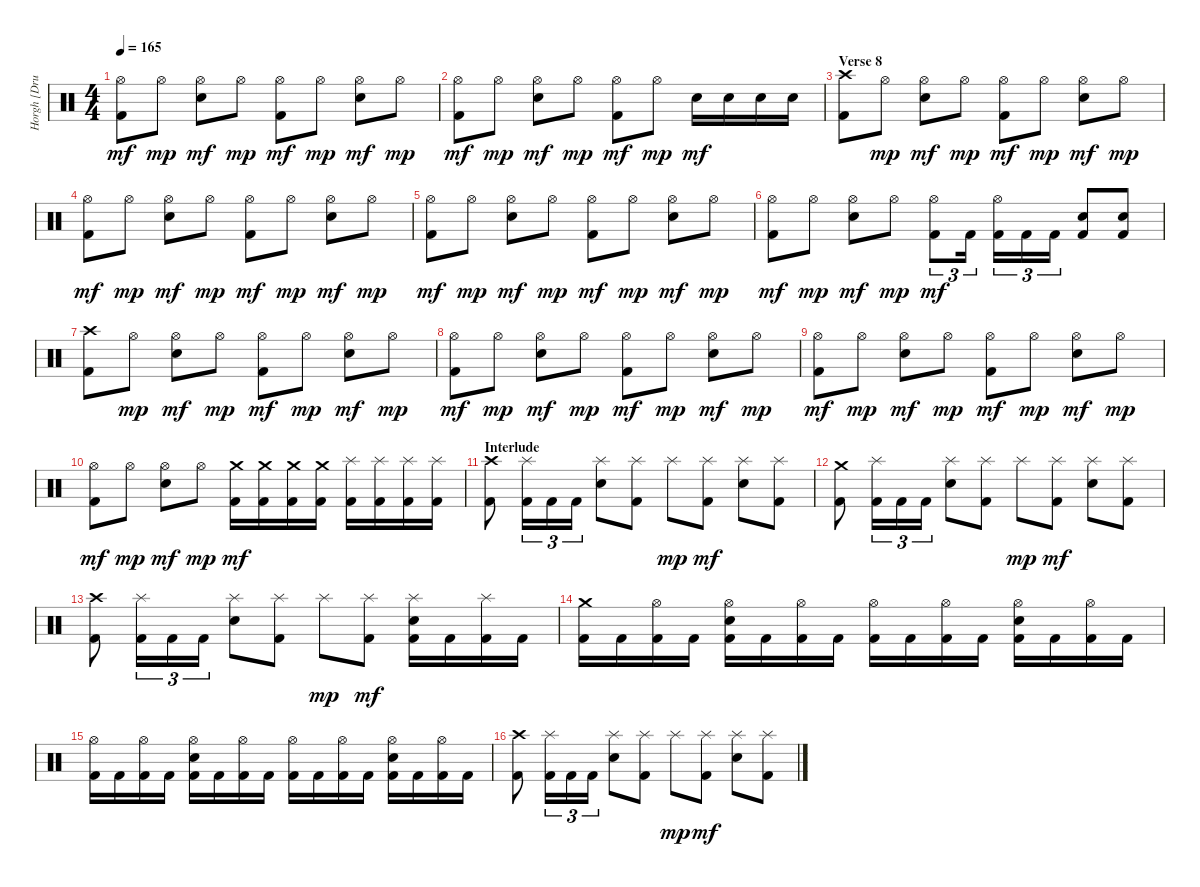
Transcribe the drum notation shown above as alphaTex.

\track ("Horgh [Drums]" "Horgh [Dru") {instrument percussion}
\staff {score}
\articulation defaults
\ts (4 4)
\tempo 165
\clef neutral
\ks c
("Hi-Hat (open)" "Kick (hit) 2").8{dy mf} "Hi-Hat (open)".8{dy mp} ("Hi-Hat (open)" "Electric Snare (hit)").8{dy mf} "Hi-Hat (open)".8{dy mp} ("Hi-Hat (open)" "Kick (hit) 2").8{dy mf} "Hi-Hat (open)".8{dy mp} ("Hi-Hat (open)" "Electric Snare (hit)").8{dy mf} "Hi-Hat (open)".8{dy mp} |
("Hi-Hat (open)" "Kick (hit) 2").8{dy mf} "Hi-Hat (open)".8{dy mp} ("Hi-Hat (open)" "Electric Snare (hit)").8{dy mf} "Hi-Hat (open)".8{dy mp} ("Hi-Hat (open)" "Kick (hit) 2").8{dy mf} "Hi-Hat (open)".8{dy mp} "Electric Snare (hit)".16{dy mf} "Electric Snare (hit)".16 "Electric Snare (hit)".16 "Electric Snare (hit)".16 |
\section ("" "Verse 8")
("Crash high (hit)" "Kick (hit) 2").8 "Hi-Hat (open)".8{dy mp} ("Hi-Hat (open)" "Electric Snare (hit)").8{dy mf} "Hi-Hat (open)".8{dy mp} ("Hi-Hat (open)" "Kick (hit) 2").8{dy mf} "Hi-Hat (open)".8{dy mp} ("Hi-Hat (open)" "Electric Snare (hit)").8{dy mf} "Hi-Hat (open)".8{dy mp} |
("Hi-Hat (open)" "Kick (hit) 2").8{dy mf} "Hi-Hat (open)".8{dy mp} ("Hi-Hat (open)" "Electric Snare (hit)").8{dy mf} "Hi-Hat (open)".8{dy mp} ("Hi-Hat (open)" "Kick (hit) 2").8{dy mf} "Hi-Hat (open)".8{dy mp} ("Hi-Hat (open)" "Electric Snare (hit)").8{dy mf} "Hi-Hat (open)".8{dy mp} |
("Hi-Hat (open)" "Kick (hit) 2").8{dy mf} "Hi-Hat (open)".8{dy mp} ("Hi-Hat (open)" "Electric Snare (hit)").8{dy mf} "Hi-Hat (open)".8{dy mp} ("Hi-Hat (open)" "Kick (hit) 2").8{dy mf} "Hi-Hat (open)".8{dy mp} ("Hi-Hat (open)" "Electric Snare (hit)").8{dy mf} "Hi-Hat (open)".8{dy mp} |
("Hi-Hat (open)" "Kick (hit) 2").8{dy mf} "Hi-Hat (open)".8{dy mp} ("Hi-Hat (open)" "Electric Snare (hit)").8{dy mf} "Hi-Hat (open)".8{dy mp} ("Hi-Hat (open)" "Kick (hit) 2").8{tu (3 2) dy mf} "Kick (hit) 2".16{tu (3 2)} ("Hi-Hat (open)" "Kick (hit) 2").16{tu (3 2)} "Kick (hit) 2".16{tu (3 2)} "Kick (hit) 2".16{tu (3 2)} ("Electric Snare (hit)" "Kick (hit) 2").8 ("Electric Snare (hit)" "Kick (hit) 2").8 |
("Crash high (hit)" "Kick (hit) 2").8 "Hi-Hat (open)".8{dy mp} ("Hi-Hat (open)" "Electric Snare (hit)").8{dy mf} "Hi-Hat (open)".8{dy mp} ("Hi-Hat (open)" "Kick (hit) 2").8{dy mf} "Hi-Hat (open)".8{dy mp} ("Hi-Hat (open)" "Electric Snare (hit)").8{dy mf} "Hi-Hat (open)".8{dy mp} |
("Hi-Hat (open)" "Kick (hit) 2").8{dy mf} "Hi-Hat (open)".8{dy mp} ("Hi-Hat (open)" "Electric Snare (hit)").8{dy mf} "Hi-Hat (open)".8{dy mp} ("Hi-Hat (open)" "Kick (hit) 2").8{dy mf} "Hi-Hat (open)".8{dy mp} ("Hi-Hat (open)" "Electric Snare (hit)").8{dy mf} "Hi-Hat (open)".8{dy mp} |
("Hi-Hat (open)" "Kick (hit) 2").8{dy mf} "Hi-Hat (open)".8{dy mp} ("Hi-Hat (open)" "Electric Snare (hit)").8{dy mf} "Hi-Hat (open)".8{dy mp} ("Hi-Hat (open)" "Kick (hit) 2").8{dy mf} "Hi-Hat (open)".8{dy mp} ("Hi-Hat (open)" "Electric Snare (hit)").8{dy mf} "Hi-Hat (open)".8{dy mp} |
("Hi-Hat (open)" "Kick (hit) 2").8{dy mf} "Hi-Hat (open)".8{dy mp} ("Hi-Hat (open)" "Electric Snare (hit)").8{dy mf} "Hi-Hat (open)".8{dy mp} ("Crash medium (hit)" "Kick (hit) 2").16{dy mf} ("Crash medium (hit)" "Kick (hit) 2").16 ("Crash medium (hit)" "Kick (hit) 2").16 ("Crash medium (hit)" "Kick (hit) 2").16 ("Splash (hit)" "Kick (hit) 2").16 ("Splash (hit)" "Kick (hit) 2").16 ("Splash (hit)" "Kick (hit) 2").16 ("Splash (hit)" "Kick (hit) 2").16 |
\section ("" "Interlude")
("Crash high (hit)" "Kick (hit) 2").8 ("Splash (hit)" "Kick (hit) 2").16{tu (3 2)} "Kick (hit) 2".16{tu (3 2)} "Kick (hit) 2".16{tu (3 2)} ("Splash (hit)" "Electric Snare (hit)").8 ("Splash (hit)" "Kick (hit) 2").8 "Splash (hit)".8{dy mp} ("Splash (hit)" "Kick (hit) 2").8{dy mf} ("Splash (hit)" "Electric Snare (hit)").8 ("Splash (hit)" "Kick (hit) 2").8 |
("Crash medium (hit)" "Kick (hit) 2").8 ("Splash (hit)" "Kick (hit) 2").16{tu (3 2)} "Kick (hit) 2".16{tu (3 2)} "Kick (hit) 2".16{tu (3 2)} ("Splash (hit)" "Electric Snare (hit)").8 ("Splash (hit)" "Kick (hit) 2").8 "Splash (hit)".8{dy mp} ("Splash (hit)" "Kick (hit) 2").8{dy mf} ("Splash (hit)" "Electric Snare (hit)").8 ("Splash (hit)" "Kick (hit) 2").8 |
("Crash high (hit)" "Kick (hit) 2").8 ("Splash (hit)" "Kick (hit) 2").16{tu (3 2)} "Kick (hit) 2".16{tu (3 2)} "Kick (hit) 2".16{tu (3 2)} ("Splash (hit)" "Electric Snare (hit)").8 ("Splash (hit)" "Kick (hit) 2").8 "Splash (hit)".8{dy mp} ("Splash (hit)" "Kick (hit) 2").8{dy mf} ("Splash (hit)" "Electric Snare (hit)" "Kick (hit) 2").16 "Kick (hit) 2".16 ("Splash (hit)" "Kick (hit) 2").16 "Kick (hit) 2".16 |
("Crash medium (hit)" "Kick (hit) 2").16 "Kick (hit) 2".16 ("Hi-Hat (open)" "Kick (hit) 2").16 "Kick (hit) 2".16 ("Hi-Hat (open)" "Electric Snare (hit)" "Kick (hit) 2").16 "Kick (hit) 2".16 ("Hi-Hat (open)" "Kick (hit) 2").16 "Kick (hit) 2".16 ("Hi-Hat (open)" "Kick (hit) 2").16 "Kick (hit) 2".16 ("Hi-Hat (open)" "Kick (hit) 2").16 "Kick (hit) 2".16 ("Hi-Hat (open)" "Electric Snare (hit)" "Kick (hit) 2").16 "Kick (hit) 2".16 ("Hi-Hat (open)" "Kick (hit) 2").16 "Kick (hit) 2".16 |
("Hi-Hat (open)" "Kick (hit) 2").16 "Kick (hit) 2".16 ("Hi-Hat (open)" "Kick (hit) 2").16 "Kick (hit) 2".16 ("Hi-Hat (open)" "Electric Snare (hit)" "Kick (hit) 2").16 "Kick (hit) 2".16 ("Hi-Hat (open)" "Kick (hit) 2").16 "Kick (hit) 2".16 ("Hi-Hat (open)" "Kick (hit) 2").16 "Kick (hit) 2".16 ("Hi-Hat (open)" "Kick (hit) 2").16 "Kick (hit) 2".16 ("Hi-Hat (open)" "Electric Snare (hit)" "Kick (hit) 2").16 "Kick (hit) 2".16 ("Hi-Hat (open)" "Kick (hit) 2").16 "Kick (hit) 2".16 |
("Crash high (hit)" "Kick (hit) 2").8 ("Splash (hit)" "Kick (hit) 2").16{tu (3 2)} "Kick (hit) 2".16{tu (3 2)} "Kick (hit) 2".16{tu (3 2)} ("Splash (hit)" "Electric Snare (hit)").8 ("Splash (hit)" "Kick (hit) 2").8 "Splash (hit)".8{dy mp} ("Splash (hit)" "Kick (hit) 2").8{dy mf} ("Splash (hit)" "Electric Snare (hit)").8 ("Splash (hit)" "Kick (hit) 2").8
